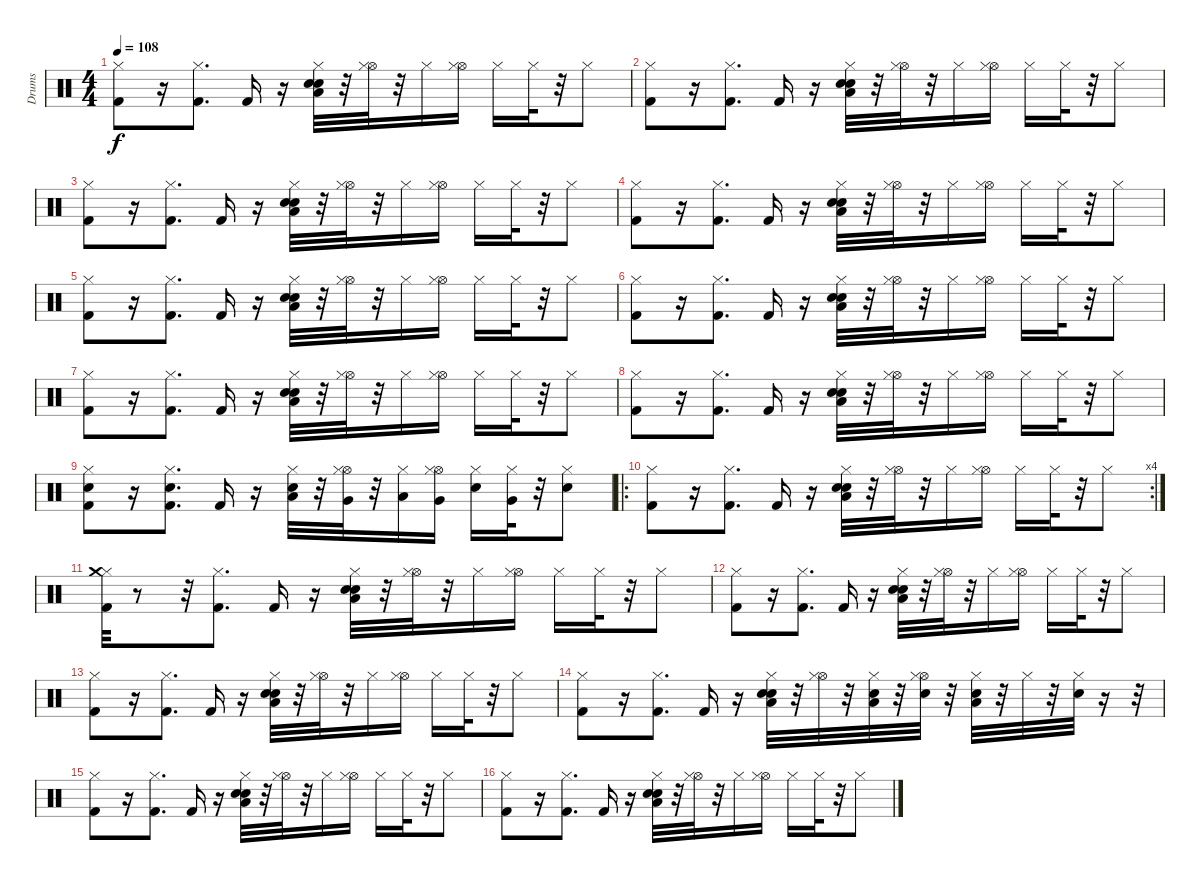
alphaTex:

\track ("Drums" "Drums") {instrument percussion}
\staff {score}
\articulation defaults
\ts (4 4)
\tempo 108
\clef neutral
\ks c
("Hi-Hat (closed)" "Kick (hit) 2").8{dy f} r.16 ("Kick (hit) 2" "Hi-Hat (closed)").8{d} "Kick (hit) 2".16 r.16 ("Low Floor Tom (hit)" "Electric Snare (hit)" "Snare (hit) 2" "Hi-Hat (closed)").32 r.32 ("Hi-Hat (open)" "Hi-Hat (closed)").32 r.32 "Hi-Hat (closed)".16 ("Hi-Hat (open)" "Hi-Hat (closed)").16 "Hi-Hat (closed)".16 "Hi-Hat (closed)".32 r.32 "Hi-Hat (closed)".8 |
("Hi-Hat (closed)" "Kick (hit) 2").8 r.16 ("Kick (hit) 2" "Hi-Hat (closed)").8{d} "Kick (hit) 2".16 r.16 ("Low Floor Tom (hit)" "Electric Snare (hit)" "Snare (hit) 2" "Hi-Hat (closed)").32 r.32 ("Hi-Hat (open)" "Hi-Hat (closed)").32 r.32 "Hi-Hat (closed)".16 ("Hi-Hat (open)" "Hi-Hat (closed)").16 "Hi-Hat (closed)".16 "Hi-Hat (closed)".32 r.32 "Hi-Hat (closed)".8 |
("Hi-Hat (closed)" "Kick (hit) 2").8 r.16 ("Kick (hit) 2" "Hi-Hat (closed)").8{d} "Kick (hit) 2".16 r.16 ("Low Floor Tom (hit)" "Electric Snare (hit)" "Snare (hit) 2" "Hi-Hat (closed)").32 r.32 ("Hi-Hat (open)" "Hi-Hat (closed)").32 r.32 "Hi-Hat (closed)".16 ("Hi-Hat (open)" "Hi-Hat (closed)").16 "Hi-Hat (closed)".16 "Hi-Hat (closed)".32 r.32 "Hi-Hat (closed)".8 |
("Hi-Hat (closed)" "Kick (hit) 2").8 r.16 ("Kick (hit) 2" "Hi-Hat (closed)").8{d} "Kick (hit) 2".16 r.16 ("Low Floor Tom (hit)" "Electric Snare (hit)" "Snare (hit) 2" "Hi-Hat (closed)").32 r.32 ("Hi-Hat (open)" "Hi-Hat (closed)").32 r.32 "Hi-Hat (closed)".16 ("Hi-Hat (open)" "Hi-Hat (closed)").16 "Hi-Hat (closed)".16 "Hi-Hat (closed)".32 r.32 "Hi-Hat (closed)".8 |
("Hi-Hat (closed)" "Kick (hit) 2").8 r.16 ("Kick (hit) 2" "Hi-Hat (closed)").8{d} "Kick (hit) 2".16 r.16 ("Low Floor Tom (hit)" "Electric Snare (hit)" "Snare (hit) 2" "Hi-Hat (closed)").32 r.32 ("Hi-Hat (open)" "Hi-Hat (closed)").32 r.32 "Hi-Hat (closed)".16 ("Hi-Hat (open)" "Hi-Hat (closed)").16 "Hi-Hat (closed)".16 "Hi-Hat (closed)".32 r.32 "Hi-Hat (closed)".8 |
("Hi-Hat (closed)" "Kick (hit) 2").8 r.16 ("Kick (hit) 2" "Hi-Hat (closed)").8{d} "Kick (hit) 2".16 r.16 ("Low Floor Tom (hit)" "Electric Snare (hit)" "Snare (hit) 2" "Hi-Hat (closed)").32 r.32 ("Hi-Hat (open)" "Hi-Hat (closed)").32 r.32 "Hi-Hat (closed)".16 ("Hi-Hat (open)" "Hi-Hat (closed)").16 "Hi-Hat (closed)".16 "Hi-Hat (closed)".32 r.32 "Hi-Hat (closed)".8 |
("Hi-Hat (closed)" "Kick (hit) 2").8 r.16 ("Kick (hit) 2" "Hi-Hat (closed)").8{d} "Kick (hit) 2".16 r.16 ("Low Floor Tom (hit)" "Electric Snare (hit)" "Snare (hit) 2" "Hi-Hat (closed)").32 r.32 ("Hi-Hat (open)" "Hi-Hat (closed)").32 r.32 "Hi-Hat (closed)".16 ("Hi-Hat (open)" "Hi-Hat (closed)").16 "Hi-Hat (closed)".16 "Hi-Hat (closed)".32 r.32 "Hi-Hat (closed)".8 |
("Hi-Hat (closed)" "Kick (hit) 2").8 r.16 ("Kick (hit) 2" "Hi-Hat (closed)").8{d} "Kick (hit) 2".16 r.16 ("Low Floor Tom (hit)" "Electric Snare (hit)" "Snare (hit) 2" "Hi-Hat (closed)").32 r.32 ("Hi-Hat (open)" "Hi-Hat (closed)").32 r.32 "Hi-Hat (closed)".16 ("Hi-Hat (open)" "Hi-Hat (closed)").16 "Hi-Hat (closed)".16 "Hi-Hat (closed)".32 r.32 "Hi-Hat (closed)".8 |
("Kick (hit) 2" "Snare (hit) 2" "Hi-Hat (closed)").8 r.16 ("Kick (hit) 2" "Electric Snare (hit)" "Hi-Hat (closed)").8{d} "Kick (hit) 2".16 r.16 ("Snare (hit) 2" "Low Tom (hit)" "Hi-Hat (closed)").32 r.32 ("Very Low Tom (hit)" "Hi-Hat (open)" "Hi-Hat (closed)").32 r.32 ("Hi-Hat (closed)" "Low Floor Tom (hit)").16 ("Hi-Hat (open)" "Very Low Tom (hit)" "Hi-Hat (closed)").16 ("Electric Snare (hit)" "Hi-Hat (closed)").16 ("Very Low Tom (hit)" "Hi-Hat (closed)").32 r.32 ("Snare (hit) 2" "Hi-Hat (closed)").8 |
\ro
\rc 4
("Hi-Hat (closed)" "Kick (hit) 2").8 r.16 ("Kick (hit) 2" "Hi-Hat (closed)").8{d} "Kick (hit) 2".16 r.16 ("Low Floor Tom (hit)" "Electric Snare (hit)" "Snare (hit) 2" "Hi-Hat (closed)").32 r.32 ("Hi-Hat (open)" "Hi-Hat (closed)").32 r.32 "Hi-Hat (closed)".16 ("Hi-Hat (open)" "Hi-Hat (closed)").16 "Hi-Hat (closed)".16 "Hi-Hat (closed)".32 r.32 "Hi-Hat (closed)".8 |
("Hi-Hat (closed)" "Kick (hit) 2" "Crash medium (hit)").32 r.8 r.32 ("Kick (hit) 2" "Hi-Hat (closed)").8{d} "Kick (hit) 2".16 r.16 ("Low Floor Tom (hit)" "Electric Snare (hit)" "Snare (hit) 2" "Hi-Hat (closed)").32 r.32 ("Hi-Hat (open)" "Hi-Hat (closed)").32 r.32 "Hi-Hat (closed)".16 ("Hi-Hat (open)" "Hi-Hat (closed)").16 "Hi-Hat (closed)".16 "Hi-Hat (closed)".32 r.32 "Hi-Hat (closed)".8 |
("Hi-Hat (closed)" "Kick (hit) 2").8 r.16 ("Kick (hit) 2" "Hi-Hat (closed)").8{d} "Kick (hit) 2".16 r.16 ("Low Floor Tom (hit)" "Electric Snare (hit)" "Snare (hit) 2" "Hi-Hat (closed)").32 r.32 ("Hi-Hat (open)" "Hi-Hat (closed)").32 r.32 "Hi-Hat (closed)".16 ("Hi-Hat (open)" "Hi-Hat (closed)").16 "Hi-Hat (closed)".16 "Hi-Hat (closed)".32 r.32 "Hi-Hat (closed)".8 |
("Hi-Hat (closed)" "Kick (hit) 2").8 r.16 ("Kick (hit) 2" "Hi-Hat (closed)").8{d} "Kick (hit) 2".16 r.16 ("Low Floor Tom (hit)" "Electric Snare (hit)" "Snare (hit) 2" "Hi-Hat (closed)").32 r.32 ("Hi-Hat (open)" "Hi-Hat (closed)").32 r.32 "Hi-Hat (closed)".16 ("Hi-Hat (open)" "Hi-Hat (closed)").16 "Hi-Hat (closed)".16 "Hi-Hat (closed)".32 r.32 "Hi-Hat (closed)".8 |
("Hi-Hat (closed)" "Kick (hit) 2").8 r.16 ("Kick (hit) 2" "Hi-Hat (closed)").8{d} "Kick (hit) 2".16 r.16 ("Low Floor Tom (hit)" "Electric Snare (hit)" "Snare (hit) 2" "Hi-Hat (closed)").32 r.32 ("Hi-Hat (open)" "Hi-Hat (closed)").32 r.32 ("Hi-Hat (closed)" "Electric Snare (hit)" "Low Tom (hit)").32 r.32 ("Hi-Hat (open)" "Hi-Hat (closed)" "Electric Snare (hit)").32 r.32 ("Hi-Hat (closed)" "Electric Snare (hit)" "Low Tom (hit)").32 r.32 "Hi-Hat (closed)".32 r.32 ("Hi-Hat (closed)" "Electric Snare (hit)").32 r.16 r.32 |
("Hi-Hat (closed)" "Kick (hit) 2").8 r.16 ("Kick (hit) 2" "Hi-Hat (closed)").8{d} "Kick (hit) 2".16 r.16 ("Low Floor Tom (hit)" "Electric Snare (hit)" "Snare (hit) 2" "Hi-Hat (closed)").32 r.32 ("Hi-Hat (open)" "Hi-Hat (closed)").32 r.32 "Hi-Hat (closed)".16 ("Hi-Hat (open)" "Hi-Hat (closed)").16 "Hi-Hat (closed)".16 "Hi-Hat (closed)".32 r.32 "Hi-Hat (closed)".8 |
("Hi-Hat (closed)" "Kick (hit) 2").8 r.16 ("Kick (hit) 2" "Hi-Hat (closed)").8{d} "Kick (hit) 2".16 r.16 ("Low Floor Tom (hit)" "Electric Snare (hit)" "Snare (hit) 2" "Hi-Hat (closed)").32 r.32 ("Hi-Hat (open)" "Hi-Hat (closed)").32 r.32 "Hi-Hat (closed)".16 ("Hi-Hat (open)" "Hi-Hat (closed)").16 "Hi-Hat (closed)".16 "Hi-Hat (closed)".32 r.32 "Hi-Hat (closed)".8
